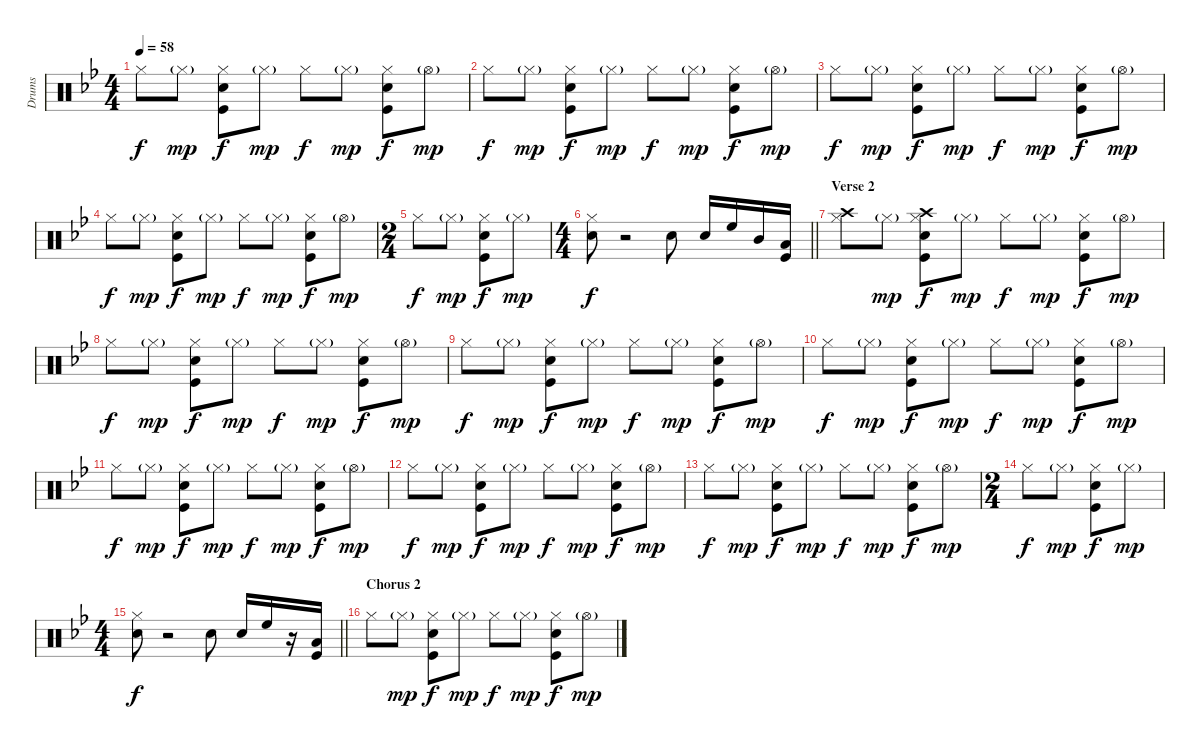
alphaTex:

\track ("Drums" "Drums") {instrument percussion}
\staff {score}
\articulation defaults
\ts (4 4)
\tempo 58
\clef neutral
\ks bb "Hi-Hat (closed)".8{dy f} "Hi-Hat (closed)"{g}.8{dy mp}
("Hi-Hat (closed)" "Kick (hit)" "Snare (hit) 2").8{dy f} "Hi-Hat (closed)"{g}.8{dy mp} "Hi-Hat (closed)".8{dy f} "Hi-Hat (closed)"{g}.8{dy mp} ("Hi-Hat (closed)" "Kick (hit)" "Snare (hit) 2").8{dy f} "Hi-Hat (open)"{g}.8{dy mp} |
"Hi-Hat (closed)".8{dy f} "Hi-Hat (closed)"{g}.8{dy mp} ("Hi-Hat (closed)" "Kick (hit)" "Snare (hit) 2").8{dy f} "Hi-Hat (closed)"{g}.8{dy mp} "Hi-Hat (closed)".8{dy f} "Hi-Hat (closed)"{g}.8{dy mp} ("Hi-Hat (closed)" "Kick (hit)" "Snare (hit) 2").8{dy f} "Hi-Hat (open)"{g}.8{dy mp} |
"Hi-Hat (closed)".8{dy f} "Hi-Hat (closed)"{g}.8{dy mp} ("Hi-Hat (closed)" "Kick (hit)" "Snare (hit) 2").8{dy f} "Hi-Hat (closed)"{g}.8{dy mp} "Hi-Hat (closed)".8{dy f} "Hi-Hat (closed)"{g}.8{dy mp} ("Hi-Hat (closed)" "Kick (hit)" "Snare (hit) 2").8{dy f} "Hi-Hat (open)"{g}.8{dy mp} |
"Hi-Hat (closed)".8{dy f} "Hi-Hat (closed)"{g}.8{dy mp} ("Hi-Hat (closed)" "Kick (hit)" "Snare (hit) 2").8{dy f} "Hi-Hat (closed)"{g}.8{dy mp} "Hi-Hat (closed)".8{dy f} "Hi-Hat (closed)"{g}.8{dy mp} ("Hi-Hat (closed)" "Kick (hit)" "Snare (hit) 2").8{dy f} "Hi-Hat (open)"{g}.8{dy mp} |
\ts (2 4)
"Hi-Hat (closed)".8{dy f} "Hi-Hat (closed)"{g}.8{dy mp} ("Hi-Hat (closed)" "Kick (hit)" "Snare (hit) 2").8{dy f} "Hi-Hat (closed)"{g}.8{dy mp} |
\ts (4 4)
\barLineRight lightlight
("Hi-Hat (closed)" "Snare (hit) 2").8{dy f} r.2 "Snare (hit) 2".8 "Snare (hit) 2".16 "High Floor Tom (hit)".16 "Mid Tom (hit)".16 ("Kick (hit)" "Low Tom (hit)").16 |
\section ("" "Verse 2")
("Crash high (hit)" "Hi-Hat (closed)").8 "Hi-Hat (closed)"{g}.8{dy mp} ("Crash high (hit)" "Hi-Hat (closed)" "Kick (hit)" "Snare (hit) 2").8{dy f} "Hi-Hat (closed)"{g}.8{dy mp} "Hi-Hat (closed)".8{dy f} "Hi-Hat (closed)"{g}.8{dy mp} ("Hi-Hat (closed)" "Kick (hit)" "Snare (hit) 2").8{dy f} "Hi-Hat (open)"{g}.8{dy mp} |
"Hi-Hat (closed)".8{dy f} "Hi-Hat (closed)"{g}.8{dy mp} ("Hi-Hat (closed)" "Kick (hit)" "Snare (hit) 2").8{dy f} "Hi-Hat (closed)"{g}.8{dy mp} "Hi-Hat (closed)".8{dy f} "Hi-Hat (closed)"{g}.8{dy mp} ("Hi-Hat (closed)" "Kick (hit)" "Snare (hit) 2").8{dy f} "Hi-Hat (open)"{g}.8{dy mp} |
"Hi-Hat (closed)".8{dy f} "Hi-Hat (closed)"{g}.8{dy mp} ("Hi-Hat (closed)" "Kick (hit)" "Snare (hit) 2").8{dy f} "Hi-Hat (closed)"{g}.8{dy mp} "Hi-Hat (closed)".8{dy f} "Hi-Hat (closed)"{g}.8{dy mp} ("Hi-Hat (closed)" "Kick (hit)" "Snare (hit) 2").8{dy f} "Hi-Hat (open)"{g}.8{dy mp} |
"Hi-Hat (closed)".8{dy f} "Hi-Hat (closed)"{g}.8{dy mp} ("Hi-Hat (closed)" "Kick (hit)" "Snare (hit) 2").8{dy f} "Hi-Hat (closed)"{g}.8{dy mp} "Hi-Hat (closed)".8{dy f} "Hi-Hat (closed)"{g}.8{dy mp} ("Hi-Hat (closed)" "Kick (hit)" "Snare (hit) 2").8{dy f} "Hi-Hat (open)"{g}.8{dy mp} |
"Hi-Hat (closed)".8{dy f} "Hi-Hat (closed)"{g}.8{dy mp} ("Hi-Hat (closed)" "Kick (hit)" "Snare (hit) 2").8{dy f} "Hi-Hat (closed)"{g}.8{dy mp} "Hi-Hat (closed)".8{dy f} "Hi-Hat (closed)"{g}.8{dy mp} ("Hi-Hat (closed)" "Kick (hit)" "Snare (hit) 2").8{dy f} "Hi-Hat (open)"{g}.8{dy mp} |
"Hi-Hat (closed)".8{dy f} "Hi-Hat (closed)"{g}.8{dy mp} ("Hi-Hat (closed)" "Kick (hit)" "Snare (hit) 2").8{dy f} "Hi-Hat (closed)"{g}.8{dy mp} "Hi-Hat (closed)".8{dy f} "Hi-Hat (closed)"{g}.8{dy mp} ("Hi-Hat (closed)" "Kick (hit)" "Snare (hit) 2").8{dy f} "Hi-Hat (open)"{g}.8{dy mp} |
"Hi-Hat (closed)".8{dy f} "Hi-Hat (closed)"{g}.8{dy mp} ("Hi-Hat (closed)" "Kick (hit)" "Snare (hit) 2").8{dy f} "Hi-Hat (closed)"{g}.8{dy mp} "Hi-Hat (closed)".8{dy f} "Hi-Hat (closed)"{g}.8{dy mp} ("Hi-Hat (closed)" "Kick (hit)" "Snare (hit) 2").8{dy f} "Hi-Hat (open)"{g}.8{dy mp} |
\ts (2 4)
"Hi-Hat (closed)".8{dy f} "Hi-Hat (closed)"{g}.8{dy mp} ("Hi-Hat (closed)" "Kick (hit)" "Snare (hit) 2").8{dy f} "Hi-Hat (closed)"{g}.8{dy mp} |
\ts (4 4)
\barLineRight lightlight
("Hi-Hat (closed)" "Snare (hit) 2").8{dy f} r.2 "Snare (hit) 2".8 "Snare (hit) 2".16 "High Floor Tom (hit)".16 r.16 ("Kick (hit)" "Low Tom (hit)").16 |
\section ("" "Chorus 2")
"Hi-Hat (closed)".8 "Hi-Hat (closed)"{g}.8{dy mp} ("Hi-Hat (closed)" "Kick (hit)" "Snare (hit) 2").8{dy f} "Hi-Hat (closed)"{g}.8{dy mp} "Hi-Hat (closed)".8{dy f} "Hi-Hat (closed)"{g}.8{dy mp} ("Hi-Hat (closed)" "Kick (hit)" "Snare (hit) 2").8{dy f} "Hi-Hat (open)"{g}.8{dy mp}
